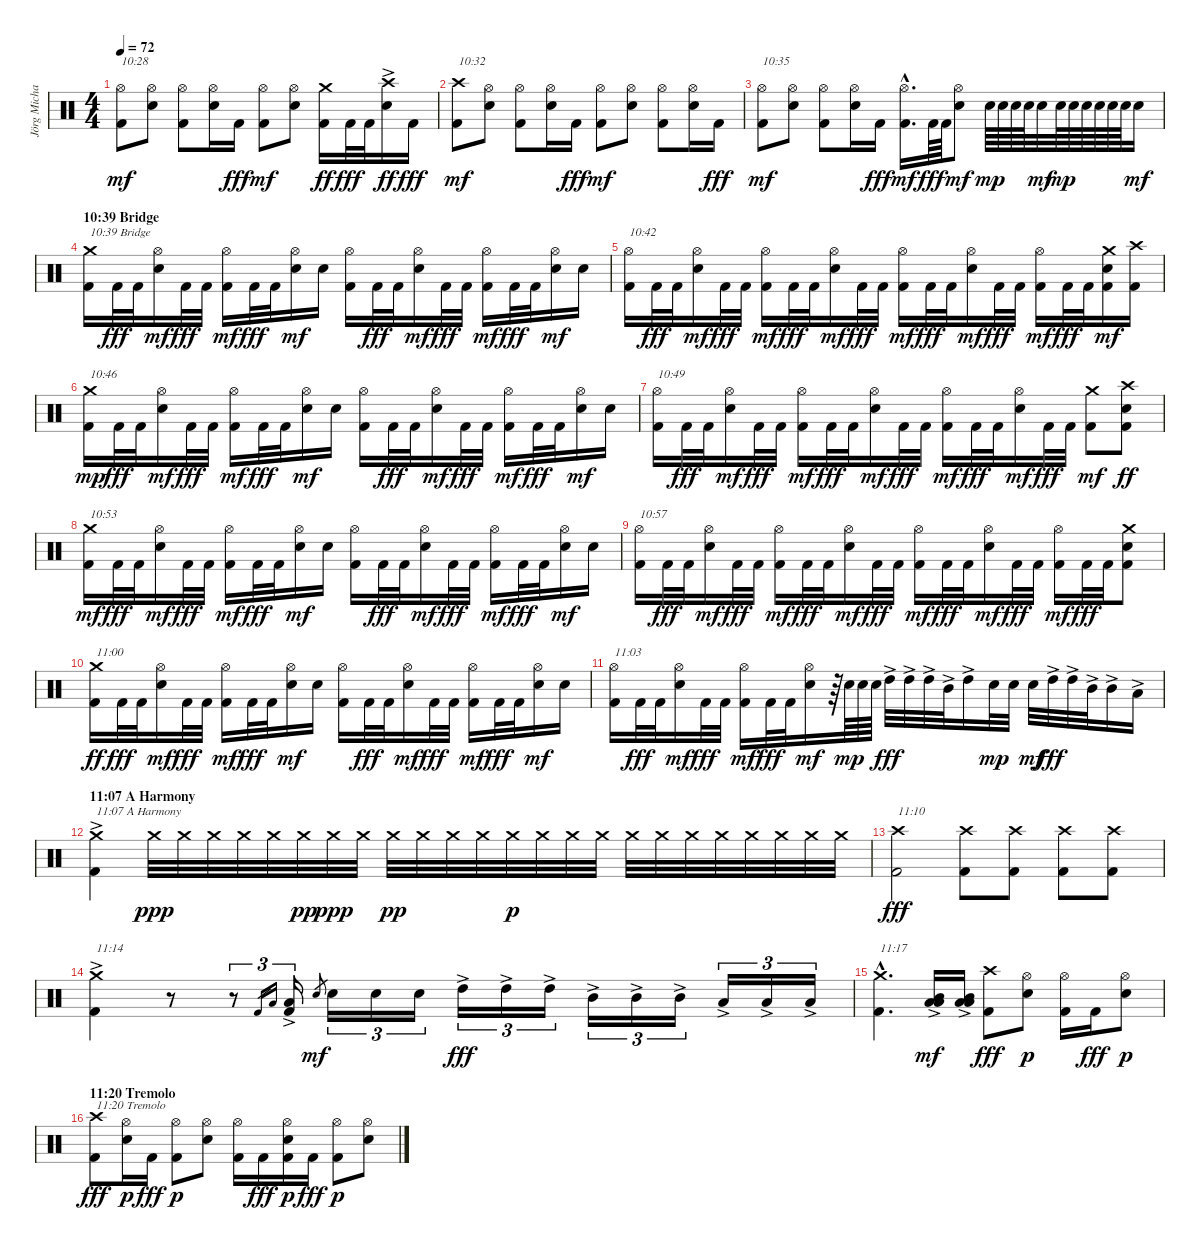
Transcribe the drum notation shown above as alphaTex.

\track ("Jörg Michael" "Jörg Micha") {instrument percussion}
\staff {score}
\articulation defaults
\ts (4 4)
\tempo 72
\clef neutral
\ks c
("Kick (hit) 2" "Hi-Hat (open)").8{txt "10:28" dy mf} ("Snare (hit) 2" "Hi-Hat (open)").8 ("Kick (hit) 2" "Hi-Hat (open)").8 ("Snare (hit) 2" "Hi-Hat (open)").16 "Kick (hit) 2".16{dy fff} ("Kick (hit) 2" "Hi-Hat (open)").8{dy mf} ("Snare (hit) 2" "Hi-Hat (open)").8 ("Kick (hit) 2" "Crash medium (hit)").16{dy ff} "Kick (hit) 2".32{dy fff} "Kick (hit) 2".32 ("Snare (hit) 2" "Crash high (hit)"{ac}).16{dy ff} "Kick (hit) 2".16{dy fff} |
("Kick (hit) 2" "Crash high (hit)").8{txt "10:32" dy mf} ("Snare (hit) 2" "Hi-Hat (open)").8 ("Kick (hit) 2" "Hi-Hat (open)").8 ("Snare (hit) 2" "Hi-Hat (open)").16 "Kick (hit) 2".16{dy fff} ("Kick (hit) 2" "Hi-Hat (open)").8{dy mf} ("Snare (hit) 2" "Hi-Hat (open)").8 ("Kick (hit) 2" "Hi-Hat (open)").8 ("Snare (hit) 2" "Hi-Hat (open)").16 "Kick (hit) 2".16{dy fff} |
("Kick (hit) 2" "Hi-Hat (open)").8{txt "10:35" dy mf} ("Snare (hit) 2" "Hi-Hat (open)").8 ("Kick (hit) 2" "Hi-Hat (open)").8 ("Snare (hit) 2" "Hi-Hat (open)").16 "Kick (hit) 2".16{dy fff} ("Kick (hit) 2"{hac} "Hi-Hat (open)"{hac}).16{d dy mf} "Kick (hit) 2".64{dy fff} "Kick (hit) 2".64 ("Snare (hit) 2" "Hi-Hat (open)").8{dy mf} "Snare (hit) 2".64{dy mp} "Snare (hit) 2".64 "Snare (hit) 2".64 "Snare (hit) 2".64 "Snare (hit) 2".32{dy mf} "Snare (hit) 2".64{dy mp} "Snare (hit) 2".64 "Snare (hit) 2".64 "Snare (hit) 2".64 "Snare (hit) 2".64 "Snare (hit) 2".64 "Snare (hit) 2".16{dy mf} |
\section ("" "10:39 Bridge")
("Kick (hit) 2" "Crash medium (hit)").16{txt "10:39 Bridge"} "Kick (hit) 2".32{dy fff} "Kick (hit) 2".32 ("Snare (hit) 2" "Hi-Hat (open)").16{dy mf} "Kick (hit) 2".32{dy fff} "Kick (hit) 2".32 ("Kick (hit) 2" "Hi-Hat (open)").16{dy mf} "Kick (hit) 2".32{dy fff} "Kick (hit) 2".32 ("Snare (hit) 2" "Hi-Hat (open)").16{dy mf} "Snare (hit) 2".16 ("Kick (hit) 2" "Hi-Hat (open)").16 "Kick (hit) 2".32{dy fff} "Kick (hit) 2".32 ("Snare (hit) 2" "Hi-Hat (open)").16{dy mf} "Kick (hit) 2".32{dy fff} "Kick (hit) 2".32 ("Kick (hit) 2" "Hi-Hat (open)").16{dy mf} "Kick (hit) 2".32{dy fff} "Kick (hit) 2".32 ("Snare (hit) 2" "Hi-Hat (open)").16{dy mf} "Snare (hit) 2".16 |
("Kick (hit) 2" "Hi-Hat (open)").16{txt "10:42"} "Kick (hit) 2".32{dy fff} "Kick (hit) 2".32 ("Snare (hit) 2" "Hi-Hat (open)").16{dy mf} "Kick (hit) 2".32{dy fff} "Kick (hit) 2".32 ("Kick (hit) 2" "Hi-Hat (open)").16{dy mf} "Kick (hit) 2".32{dy fff} "Kick (hit) 2".32 ("Snare (hit) 2" "Hi-Hat (open)").16{dy mf} "Kick (hit) 2".32{dy fff} "Kick (hit) 2".32 ("Kick (hit) 2" "Hi-Hat (open)").16{dy mf} "Kick (hit) 2".32{dy fff} "Kick (hit) 2".32 ("Snare (hit) 2" "Hi-Hat (open)").16{dy mf} "Kick (hit) 2".32{dy fff} "Kick (hit) 2".32 ("Kick (hit) 2" "Hi-Hat (open)").16{dy mf} "Kick (hit) 2".32{dy fff} "Kick (hit) 2".32 ("Kick (hit) 2" "Snare (hit) 2" "Crash medium (hit)").16{dy mf} ("Kick (hit) 2" "Crash high (hit)").16 |
("Kick (hit) 2" "Crash medium (hit)").16{txt "10:46" dy mp} "Kick (hit) 2".32{dy fff} "Kick (hit) 2".32 ("Snare (hit) 2" "Hi-Hat (open)").16{dy mf} "Kick (hit) 2".32{dy fff} "Kick (hit) 2".32 ("Kick (hit) 2" "Hi-Hat (open)").16{dy mf} "Kick (hit) 2".32{dy fff} "Kick (hit) 2".32 ("Snare (hit) 2" "Hi-Hat (open)").16{dy mf} "Snare (hit) 2".16 ("Kick (hit) 2" "Hi-Hat (open)").16 "Kick (hit) 2".32{dy fff} "Kick (hit) 2".32 ("Snare (hit) 2" "Hi-Hat (open)").16{dy mf} "Kick (hit) 2".32{dy fff} "Kick (hit) 2".32 ("Kick (hit) 2" "Hi-Hat (open)").16{dy mf} "Kick (hit) 2".32{dy fff} "Kick (hit) 2".32 ("Snare (hit) 2" "Hi-Hat (open)").16{dy mf} "Snare (hit) 2".16 |
("Kick (hit) 2" "Hi-Hat (open)").16{txt "10:49"} "Kick (hit) 2".32{dy fff} "Kick (hit) 2".32 ("Snare (hit) 2" "Hi-Hat (open)").16{dy mf} "Kick (hit) 2".32{dy fff} "Kick (hit) 2".32 ("Kick (hit) 2" "Hi-Hat (open)").16{dy mf} "Kick (hit) 2".32{dy fff} "Kick (hit) 2".32 ("Snare (hit) 2" "Hi-Hat (open)").16{dy mf} "Kick (hit) 2".32{dy fff} "Kick (hit) 2".32 ("Kick (hit) 2" "Hi-Hat (open)").16{dy mf} "Kick (hit) 2".32{dy fff} "Kick (hit) 2".32 ("Snare (hit) 2" "Hi-Hat (open)").16{dy mf} "Kick (hit) 2".32{dy fff} "Kick (hit) 2".32 ("Kick (hit) 2" "Crash medium (hit)").8{dy mf} ("Kick (hit) 2" "Snare (hit) 2" "Crash high (hit)").8{dy ff} |
("Kick (hit) 2" "Crash medium (hit)").16{txt "10:53" dy mf} "Kick (hit) 2".32{dy fff} "Kick (hit) 2".32 ("Snare (hit) 2" "Hi-Hat (open)").16{dy mf} "Kick (hit) 2".32{dy fff} "Kick (hit) 2".32 ("Kick (hit) 2" "Hi-Hat (open)").16{dy mf} "Kick (hit) 2".32{dy fff} "Kick (hit) 2".32 ("Snare (hit) 2" "Hi-Hat (open)").16{dy mf} "Snare (hit) 2".16 ("Kick (hit) 2" "Hi-Hat (open)").16 "Kick (hit) 2".32{dy fff} "Kick (hit) 2".32 ("Snare (hit) 2" "Hi-Hat (open)").16{dy mf} "Kick (hit) 2".32{dy fff} "Kick (hit) 2".32 ("Kick (hit) 2" "Hi-Hat (open)").16{dy mf} "Kick (hit) 2".32{dy fff} "Kick (hit) 2".32 ("Snare (hit) 2" "Hi-Hat (open)").16{dy mf} "Snare (hit) 2".16 |
("Kick (hit) 2" "Hi-Hat (open)").16{txt "10:57"} "Kick (hit) 2".32{dy fff} "Kick (hit) 2".32 ("Snare (hit) 2" "Hi-Hat (open)").16{dy mf} "Kick (hit) 2".32{dy fff} "Kick (hit) 2".32 ("Kick (hit) 2" "Hi-Hat (open)").16{dy mf} "Kick (hit) 2".32{dy fff} "Kick (hit) 2".32 ("Snare (hit) 2" "Hi-Hat (open)").16{dy mf} "Kick (hit) 2".32{dy fff} "Kick (hit) 2".32 ("Kick (hit) 2" "Hi-Hat (open)").16{dy mf} "Kick (hit) 2".32{dy fff} "Kick (hit) 2".32 ("Snare (hit) 2" "Hi-Hat (open)").16{dy mf} "Kick (hit) 2".32{dy fff} "Kick (hit) 2".32 ("Kick (hit) 2" "Hi-Hat (open)").16{dy mf} "Kick (hit) 2".32{dy fff} "Kick (hit) 2".32 ("Kick (hit) 2" "Snare (hit) 2" "Crash medium (hit)").8 |
("Kick (hit) 2" "Crash medium (hit)").16{txt "11:00" dy ff} "Kick (hit) 2".32{dy fff} "Kick (hit) 2".32 ("Snare (hit) 2" "Hi-Hat (open)").16{dy mf} "Kick (hit) 2".32{dy fff} "Kick (hit) 2".32 ("Kick (hit) 2" "Hi-Hat (open)").16{dy mf} "Kick (hit) 2".32{dy fff} "Kick (hit) 2".32 ("Snare (hit) 2" "Hi-Hat (open)").16{dy mf} "Snare (hit) 2".16 ("Kick (hit) 2" "Hi-Hat (open)").16 "Kick (hit) 2".32{dy fff} "Kick (hit) 2".32 ("Snare (hit) 2" "Hi-Hat (open)").16{dy mf} "Kick (hit) 2".32{dy fff} "Kick (hit) 2".32 ("Kick (hit) 2" "Hi-Hat (open)").16{dy mf} "Kick (hit) 2".32{dy fff} "Kick (hit) 2".32 ("Snare (hit) 2" "Hi-Hat (open)").16{dy mf} "Snare (hit) 2".16 |
("Kick (hit) 2" "Hi-Hat (open)").16{txt "11:03"} "Kick (hit) 2".32{dy fff} "Kick (hit) 2".32 ("Snare (hit) 2" "Hi-Hat (open)").16{dy mf} "Kick (hit) 2".32{dy fff} "Kick (hit) 2".32 ("Kick (hit) 2" "Hi-Hat (open)").16{dy mf} "Kick (hit) 2".32{dy fff} "Kick (hit) 2".32 ("Snare (hit) 2" "Hi-Hat (open)").16{dy mf} r.64 "Snare (hit) 2".64{dy mp} "Snare (hit) 2".64 "Snare (hit) 2".64 "High Tom (hit)"{ac}.32{dy fff} "High Tom (hit)"{ac}.32 "High Tom (hit)"{ac}.32 "Mid Tom (hit)"{ac}.32 "High Tom (hit)"{ac}.16 "Snare (hit) 2".32{dy mp} "Snare (hit) 2".32 "Snare (hit) 2".32{dy mf} "High Tom (hit)"{ac}.32{dy fff} "High Tom (hit)"{ac}.32 "Mid Tom (hit)"{ac}.32 "Mid Tom (hit)"{ac}.16 "Low Tom (hit)"{ac}.16 |
\section ("" "11:07 A Harmony")
("Kick (hit) 2" "Crash medium (hit)"{ac}).4{txt "11:07 A Harmony"} "Crash medium (hit)".32{dy ppp} "Crash medium (hit)".32 "Crash medium (hit)".32 "Crash medium (hit)".32 "Crash medium (hit)".32 "Crash medium (hit)".32{dy pp} "Crash medium (hit)".32{dy ppp} "Crash medium (hit)".32 "Crash medium (hit)".32{dy pp} "Crash medium (hit)".32 "Crash medium (hit)".32 "Crash medium (hit)".32 "Crash medium (hit)".32{dy p} "Crash medium (hit)".32 "Crash medium (hit)".32 "Crash medium (hit)".32 "Crash medium (hit)".32 "Crash medium (hit)".32 "Crash medium (hit)".32 "Crash medium (hit)".32 "Crash medium (hit)".32 "Crash medium (hit)".32 "Crash medium (hit)".32 "Crash medium (hit)".32 |
("Kick (hit) 2" "Crash high (hit)").2{txt "11:10" dy fff} ("Kick (hit) 2" "Crash high (hit)").8 ("Kick (hit) 2" "Crash high (hit)").8 ("Kick (hit) 2" "Crash high (hit)").8 ("Kick (hit) 2" "Crash high (hit)").8 |
("Kick (hit) 2" "Crash medium (hit)"{ac}).4{txt "11:14"} r.8 r.8{tu (3 2)} "Kick (hit) 2".16{gr} "Low Tom (hit)".16{gr} ("Kick (hit) 2" "Low Tom (hit)"{ac}).16{tu (3 2)} "Snare (hit) 2".8{gr dy mf} "Snare (hit) 2".16{tu (3 2)} "Snare (hit) 2".16{tu (3 2)} "Snare (hit) 2".16{tu (3 2)} "High Tom (hit)"{ac}.16{tu (3 2) dy fff} "High Tom (hit)"{ac}.16{tu (3 2)} "High Tom (hit)"{ac}.16{tu (3 2)} "Mid Tom (hit)"{ac}.16{tu (3 2)} "Mid Tom (hit)"{ac}.16{tu (3 2)} "Mid Tom (hit)"{ac}.16{tu (3 2)} "Low Tom (hit)"{ac}.16{tu (3 2)} "Low Tom (hit)"{ac}.16{tu (3 2)} "Low Tom (hit)"{ac}.16{tu (3 2)} |
("Kick (hit) 2"{hac} "Crash medium (hit)"{hac}).4{d txt "11:17"} ("Low Tom (hit)"{ac} "Low Tom (hit)"{ac} "Mid Tom (hit)").16{dy mf} ("Low Tom (hit)"{ac} "Low Tom (hit)"{ac} "Mid Tom (hit)").16 ("Kick (hit) 2" "Crash high (hit)").8{dy fff} ("Snare (hit) 2" "Hi-Hat (open)").8{dy p} ("Kick (hit) 2" "Hi-Hat (open)").16 "Kick (hit) 2".16{dy fff} ("Snare (hit) 2" "Hi-Hat (open)").8{dy p} |
\section ("" "11:20 Tremolo")
("Kick (hit) 2" "Crash high (hit)").8{txt "11:20 Tremolo" dy fff} ("Snare (hit) 2" "Hi-Hat (open)").16{dy p} "Kick (hit) 2".16{dy fff} ("Kick (hit) 2" "Hi-Hat (open)").8{dy p} ("Snare (hit) 2" "Hi-Hat (open)").8 ("Kick (hit) 2" "Hi-Hat (open)").16 "Kick (hit) 2".16{dy fff} ("Kick (hit) 2" "Snare (hit) 2" "Hi-Hat (open)").16{dy p} "Kick (hit) 2".16{dy fff} ("Kick (hit) 2" "Hi-Hat (open)").8{dy p} ("Snare (hit) 2" "Hi-Hat (open)").8
